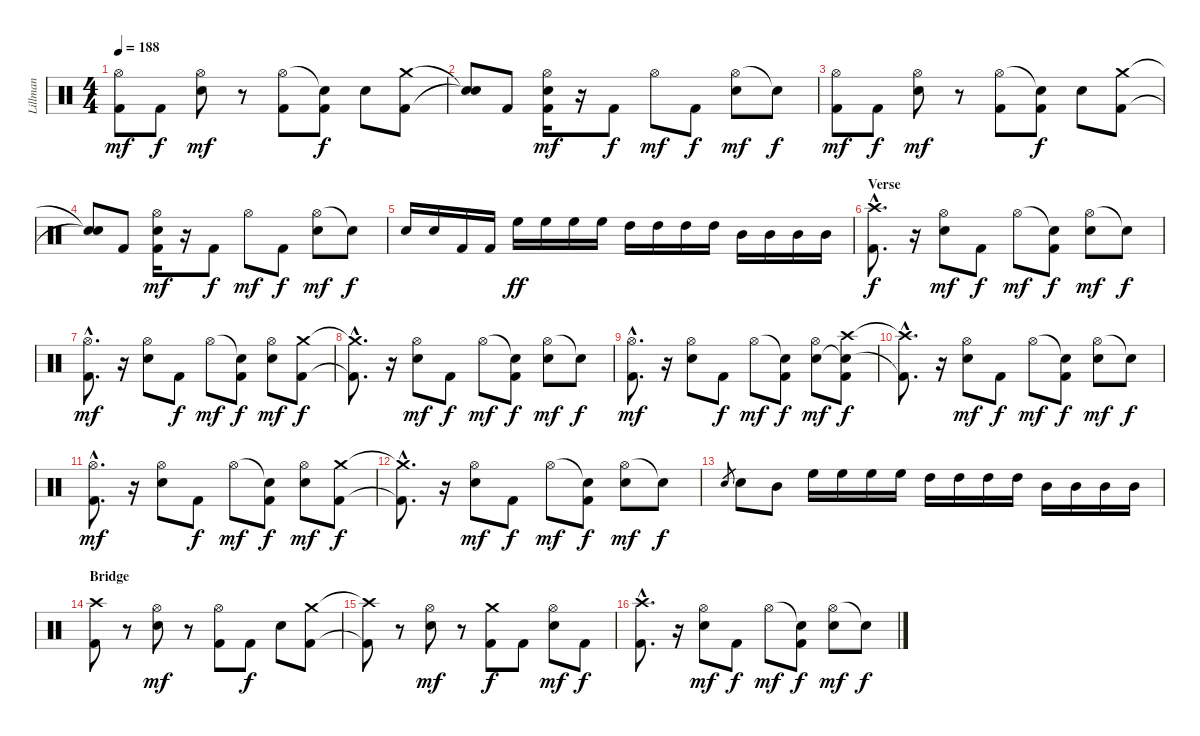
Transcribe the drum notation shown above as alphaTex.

\track ("Lillman" "Lillman") {instrument percussion}
\staff {score}
\articulation defaults
\ts (4 4)
\tempo 188
\clef neutral
\ks c
("Hi-Hat (open)" "Kick (hit) 2").8{dy mf} "Kick (hit) 2".8{dy f} ("Hi-Hat (open)" "Snare (hit) 2").8{dy mf} r.8 ("Hi-Hat (open)" "Kick (hit) 2").8 ("Snare (hit)"{t} "Kick (hit) 2").8{dy f} "Snare (hit) 2".8 ("Crash medium (hit)" "Kick (hit) 2").8 |
("Snare (hit)"{t} "Snare (hit)"{t}).8 "Kick (hit) 2".8 ("Hi-Hat (open)" "Snare (hit) 2" "Kick (hit) 2").16{dy mf} r.16 "Kick (hit) 2".8{dy f} "Hi-Hat (open)".8{dy mf} "Kick (hit) 2".8{dy f} ("Hi-Hat (open)" "Snare (hit) 2").8{dy mf} "Snare (hit)"{t}.8{dy f} |
("Hi-Hat (open)" "Kick (hit) 2").8{dy mf} "Kick (hit) 2".8{dy f} ("Hi-Hat (open)" "Snare (hit) 2").8{dy mf} r.8 ("Hi-Hat (open)" "Kick (hit) 2").8 ("Snare (hit)"{t} "Kick (hit) 2").8{dy f} "Snare (hit) 2".8 ("Crash medium (hit)" "Kick (hit) 2").8 |
("Snare (hit)"{t} "Snare (hit)"{t}).8 "Kick (hit) 2".8 ("Hi-Hat (open)" "Snare (hit) 2" "Kick (hit) 2").16{dy mf} r.16 "Kick (hit) 2".8{dy f} "Hi-Hat (open)".8{dy mf} "Kick (hit) 2".8{dy f} ("Hi-Hat (open)" "Snare (hit) 2").8{dy mf} "Snare (hit)"{t}.8{dy f} |
"Snare (hit) 2".16 "Snare (hit) 2".16 "Kick (hit) 2".16 "Kick (hit) 2".16 "High Floor Tom (hit)".16{dy ff} "High Floor Tom (hit)".16 "High Floor Tom (hit)".16 "High Floor Tom (hit)".16 "High Tom (hit)".16 "High Tom (hit)".16 "High Tom (hit)".16 "High Tom (hit)".16 "Mid Tom (hit)".16 "Mid Tom (hit)".16 "Mid Tom (hit)".16 "Mid Tom (hit)".16 |
\section ("" "Verse")
("Crash high (hit)"{hac} "Kick (hit) 2"{hac}).8{d dy f} r.16 ("Hi-Hat (open)" "Snare (hit) 2").8{dy mf} "Kick (hit) 2".8{dy f} "Hi-Hat (open)".8{dy mf} ("Snare (hit)"{t} "Kick (hit) 2").8{dy f} ("Hi-Hat (open)" "Snare (hit) 2").8{dy mf} "Snare (hit)"{t}.8{dy f} |
("Hi-Hat (open)"{hac} "Kick (hit) 2"{hac}).8{d dy mf} r.16 ("Hi-Hat (open)" "Snare (hit) 2").8 "Kick (hit) 2".8{dy f} "Hi-Hat (open)".8{dy mf} ("Snare (hit)"{t} "Kick (hit) 2").8{dy f} ("Hi-Hat (open)" "Snare (hit) 2").8{dy mf} ("Crash medium (hit)" "Kick (hit) 2").8{dy f} |
("Crash medium (hit)"{hac t} "Kick (hit) 2"{hac t}).8{d} r.16 ("Hi-Hat (open)" "Snare (hit) 2").8{dy mf} "Kick (hit) 2".8{dy f} "Hi-Hat (open)".8{dy mf} ("Snare (hit)"{t} "Kick (hit) 2").8{dy f} ("Hi-Hat (open)" "Snare (hit) 2").8{dy mf} "Snare (hit)"{t}.8{dy f} |
("Hi-Hat (open)"{hac} "Kick (hit) 2"{hac}).8{d dy mf} r.16 ("Hi-Hat (open)" "Snare (hit) 2").8 "Kick (hit) 2".8{dy f} "Hi-Hat (open)".8{dy mf} ("Snare (hit)"{t} "Kick (hit) 2").8{dy f} ("Hi-Hat (open)" "Snare (hit) 2").8{dy mf} ("Crash high (hit)" "Snare (hit)"{t} "Kick (hit) 2").8{dy f} |
("Crash high (hit)"{hac t} "Kick (hit) 2"{hac t}).8{d} r.16 ("Hi-Hat (open)" "Snare (hit) 2").8{dy mf} "Kick (hit) 2".8{dy f} "Hi-Hat (open)".8{dy mf} ("Snare (hit)"{t} "Kick (hit) 2").8{dy f} ("Hi-Hat (open)" "Snare (hit) 2").8{dy mf} "Snare (hit)"{t}.8{dy f} |
("Hi-Hat (open)"{hac} "Kick (hit) 2"{hac}).8{d dy mf} r.16 ("Hi-Hat (open)" "Snare (hit) 2").8 "Kick (hit) 2".8{dy f} "Hi-Hat (open)".8{dy mf} ("Snare (hit)"{t} "Kick (hit) 2").8{dy f} ("Hi-Hat (open)" "Snare (hit) 2").8{dy mf} ("Crash medium (hit)" "Kick (hit) 2").8{dy f} |
("Crash medium (hit)"{hac t} "Kick (hit) 2"{hac t}).8{d} r.16 ("Hi-Hat (open)" "Snare (hit) 2").8{dy mf} "Kick (hit) 2".8{dy f} "Hi-Hat (open)".8{dy mf} ("Snare (hit)"{t} "Kick (hit) 2").8{dy f} ("Hi-Hat (open)" "Snare (hit) 2").8{dy mf} "Snare (hit)"{t}.8{dy f} |
"Snare (hit) 2".8{gr} "Snare (hit) 2".8 "Mid Tom (hit)".8 "High Floor Tom (hit)".16 "High Floor Tom (hit)".16 "High Floor Tom (hit)".16 "High Floor Tom (hit)".16 "High Tom (hit)".16 "High Tom (hit)".16 "High Tom (hit)".16 "High Tom (hit)".16 "Mid Tom (hit)".16 "Mid Tom (hit)".16 "Mid Tom (hit)".16 "Mid Tom (hit)".16 |
\section ("" "Bridge")
("Crash high (hit)" "Kick (hit) 2").8 r.8 ("Hi-Hat (open)" "Snare (hit) 2").8{dy mf} r.8 ("Hi-Hat (open)" "Kick (hit) 2").8 "Kick (hit) 2".8{dy f} "Snare (hit) 2".8 ("Crash medium (hit)" "Kick (hit) 2").8 |
("Crash high (hit)"{t} "Kick (hit) 2"{t}).8 r.8 ("Hi-Hat (open)" "Snare (hit) 2").8{dy mf} r.8 ("Crash medium (hit)" "Kick (hit) 2").8{dy f} "Kick (hit) 2".8 ("Hi-Hat (open)" "Snare (hit) 2").8{dy mf} "Kick (hit) 2".8{dy f} |
("Crash high (hit)"{hac} "Kick (hit) 2"{hac}).8{d} r.16 ("Hi-Hat (open)" "Snare (hit) 2").8{dy mf} "Kick (hit) 2".8{dy f} "Hi-Hat (open)".8{dy mf} ("Snare (hit)"{t} "Kick (hit) 2").8{dy f} ("Hi-Hat (open)" "Snare (hit) 2").8{dy mf} "Snare (hit)"{t}.8{dy f}
